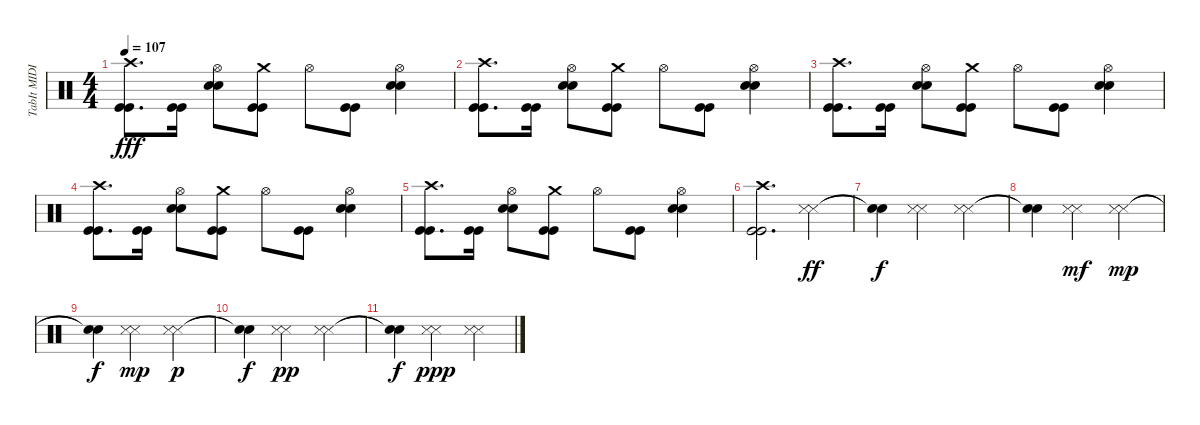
\track ("TabIt MIDI - Track 5" "TabIt MIDI") {instrument percussion}
\staff {score}
\articulation defaults
\ts (4 4)
\tempo 107
\clef neutral
\ks c
("Kick (hit)" "Kick (hit)" "Crash high (hit)").8{d dy fff} ("Kick (hit)" "Kick (hit)").16 ("Snare (hit) 2" "Snare (hit) 2" "Hi-Hat (open)").8 ("Kick (hit)" "Kick (hit)" "Crash medium (hit)").8 "Hi-Hat (open)".8 ("Kick (hit)" "Kick (hit)").8 ("Snare (hit) 2" "Snare (hit) 2" "Hi-Hat (open)").4 |
("Kick (hit)" "Kick (hit)" "Crash high (hit)").8{d} ("Kick (hit)" "Kick (hit)").16 ("Snare (hit) 2" "Snare (hit) 2" "Hi-Hat (open)").8 ("Kick (hit)" "Kick (hit)" "Crash medium (hit)").8 "Hi-Hat (open)".8 ("Kick (hit)" "Kick (hit)").8 ("Snare (hit) 2" "Snare (hit) 2" "Hi-Hat (open)").4 |
("Kick (hit)" "Kick (hit)" "Crash high (hit)").8{d} ("Kick (hit)" "Kick (hit)").16 ("Snare (hit) 2" "Snare (hit) 2" "Hi-Hat (open)").8 ("Kick (hit)" "Kick (hit)" "Crash medium (hit)").8 "Hi-Hat (open)".8 ("Kick (hit)" "Kick (hit)").8 ("Snare (hit) 2" "Snare (hit) 2" "Hi-Hat (open)").4 |
("Kick (hit)" "Kick (hit)" "Crash high (hit)").8{d} ("Kick (hit)" "Kick (hit)").16 ("Snare (hit) 2" "Snare (hit) 2" "Hi-Hat (open)").8 ("Kick (hit)" "Kick (hit)" "Crash medium (hit)").8 "Hi-Hat (open)".8 ("Kick (hit)" "Kick (hit)").8 ("Snare (hit) 2" "Snare (hit) 2" "Hi-Hat (open)").4 |
("Kick (hit)" "Kick (hit)" "Crash high (hit)").8{d} ("Kick (hit)" "Kick (hit)").16 ("Snare (hit) 2" "Snare (hit) 2" "Hi-Hat (open)").8 ("Kick (hit)" "Kick (hit)" "Crash medium (hit)").8 "Hi-Hat (open)".8 ("Kick (hit)" "Kick (hit)").8 ("Snare (hit) 2" "Snare (hit) 2" "Hi-Hat (open)").4 |
("Kick (hit)" "Kick (hit)" "Crash high (hit)").2{d} ("Snare (side stick) 3" "Snare (side stick) 3").4{dy ff} |
("Snare (hit)"{t} "Snare (hit)"{t}).4{dy f} ("Snare (side stick) 3" "Snare (side stick) 3").2 ("Snare (side stick) 3" "Snare (side stick) 3").4 |
("Snare (hit)"{t} "Snare (hit)"{t}).4 ("Snare (side stick) 3" "Snare (side stick) 3").2{dy mf} ("Snare (side stick) 3" "Snare (side stick) 3").4{dy mp} |
("Snare (hit)"{t} "Snare (hit)"{t}).4{dy f} ("Snare (side stick) 3" "Snare (side stick) 3").2{dy mp} ("Snare (side stick) 3" "Snare (side stick) 3").4{dy p} |
("Snare (hit)"{t} "Snare (hit)"{t}).4{dy f} ("Snare (side stick) 3" "Snare (side stick) 3").2{dy pp} ("Snare (side stick) 3" "Snare (side stick) 3").4 |
("Snare (hit)"{t} "Snare (hit)"{t}).4{dy f} ("Snare (side stick) 3" "Snare (side stick) 3").2{dy ppp} ("Snare (side stick) 3" "Snare (side stick) 3").4
